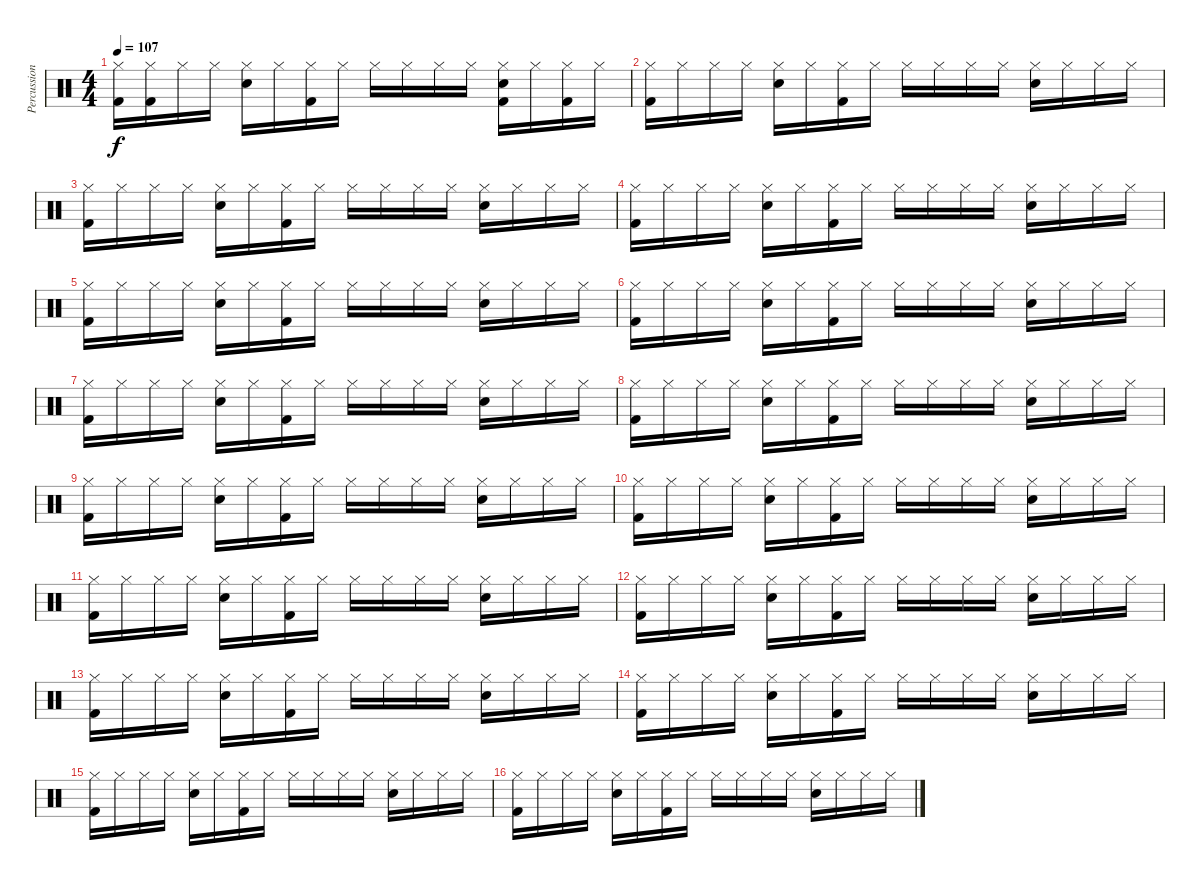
\track ("Percussion" "Percussion") {instrument percussion}
\staff {score}
\articulation defaults
\ts (4 4)
\tempo 107
\clef neutral
\ks c
("Hi-Hat (closed)" "Kick (hit) 2").16{dy f} ("Hi-Hat (closed)" "Kick (hit) 2").16 "Hi-Hat (closed)".16 "Hi-Hat (closed)".16 ("Hi-Hat (closed)" "Snare (hit) 2").16 "Hi-Hat (closed)".16 ("Hi-Hat (closed)" "Kick (hit) 2").16 "Hi-Hat (closed)".16 "Hi-Hat (closed)".16 "Hi-Hat (closed)".16 "Hi-Hat (closed)".16 "Hi-Hat (closed)".16 ("Hi-Hat (closed)" "Snare (hit) 2" "Kick (hit) 2").16 "Hi-Hat (closed)".16 ("Hi-Hat (closed)" "Kick (hit) 2").16 "Hi-Hat (closed)".16 |
("Hi-Hat (closed)" "Kick (hit) 2").16 "Hi-Hat (closed)".16 "Hi-Hat (closed)".16 "Hi-Hat (closed)".16 ("Hi-Hat (closed)" "Snare (hit) 2").16 "Hi-Hat (closed)".16 ("Hi-Hat (closed)" "Kick (hit) 2").16 "Hi-Hat (closed)".16 "Hi-Hat (closed)".16 "Hi-Hat (closed)".16 "Hi-Hat (closed)".16 "Hi-Hat (closed)".16 ("Hi-Hat (closed)" "Snare (hit) 2").16 "Hi-Hat (closed)".16 "Hi-Hat (closed)".16 "Hi-Hat (closed)".16 |
("Hi-Hat (closed)" "Kick (hit) 2").16 "Hi-Hat (closed)".16 "Hi-Hat (closed)".16 "Hi-Hat (closed)".16 ("Hi-Hat (closed)" "Snare (hit) 2").16 "Hi-Hat (closed)".16 ("Hi-Hat (closed)" "Kick (hit) 2").16 "Hi-Hat (closed)".16 "Hi-Hat (closed)".16 "Hi-Hat (closed)".16 "Hi-Hat (closed)".16 "Hi-Hat (closed)".16 ("Hi-Hat (closed)" "Snare (hit) 2").16 "Hi-Hat (closed)".16 "Hi-Hat (closed)".16 "Hi-Hat (closed)".16 |
("Hi-Hat (closed)" "Kick (hit) 2").16 "Hi-Hat (closed)".16 "Hi-Hat (closed)".16 "Hi-Hat (closed)".16 ("Hi-Hat (closed)" "Snare (hit) 2").16 "Hi-Hat (closed)".16 ("Hi-Hat (closed)" "Kick (hit) 2").16 "Hi-Hat (closed)".16 "Hi-Hat (closed)".16 "Hi-Hat (closed)".16 "Hi-Hat (closed)".16 "Hi-Hat (closed)".16 ("Hi-Hat (closed)" "Snare (hit) 2").16 "Hi-Hat (closed)".16 "Hi-Hat (closed)".16 "Hi-Hat (closed)".16 |
("Hi-Hat (closed)" "Kick (hit) 2").16 "Hi-Hat (closed)".16 "Hi-Hat (closed)".16 "Hi-Hat (closed)".16 ("Hi-Hat (closed)" "Snare (hit) 2").16 "Hi-Hat (closed)".16 ("Hi-Hat (closed)" "Kick (hit) 2").16 "Hi-Hat (closed)".16 "Hi-Hat (closed)".16 "Hi-Hat (closed)".16 "Hi-Hat (closed)".16 "Hi-Hat (closed)".16 ("Hi-Hat (closed)" "Snare (hit) 2").16 "Hi-Hat (closed)".16 "Hi-Hat (closed)".16 "Hi-Hat (closed)".16 |
("Hi-Hat (closed)" "Kick (hit) 2").16 "Hi-Hat (closed)".16 "Hi-Hat (closed)".16 "Hi-Hat (closed)".16 ("Hi-Hat (closed)" "Snare (hit) 2").16 "Hi-Hat (closed)".16 ("Hi-Hat (closed)" "Kick (hit) 2").16 "Hi-Hat (closed)".16 "Hi-Hat (closed)".16 "Hi-Hat (closed)".16 "Hi-Hat (closed)".16 "Hi-Hat (closed)".16 ("Hi-Hat (closed)" "Snare (hit) 2").16 "Hi-Hat (closed)".16 "Hi-Hat (closed)".16 "Hi-Hat (closed)".16 |
("Hi-Hat (closed)" "Kick (hit) 2").16 "Hi-Hat (closed)".16 "Hi-Hat (closed)".16 "Hi-Hat (closed)".16 ("Hi-Hat (closed)" "Snare (hit) 2").16 "Hi-Hat (closed)".16 ("Hi-Hat (closed)" "Kick (hit) 2").16 "Hi-Hat (closed)".16 "Hi-Hat (closed)".16 "Hi-Hat (closed)".16 "Hi-Hat (closed)".16 "Hi-Hat (closed)".16 ("Hi-Hat (closed)" "Snare (hit) 2").16 "Hi-Hat (closed)".16 "Hi-Hat (closed)".16 "Hi-Hat (closed)".16 |
("Hi-Hat (closed)" "Kick (hit) 2").16 "Hi-Hat (closed)".16 "Hi-Hat (closed)".16 "Hi-Hat (closed)".16 ("Hi-Hat (closed)" "Snare (hit) 2").16 "Hi-Hat (closed)".16 ("Hi-Hat (closed)" "Kick (hit) 2").16 "Hi-Hat (closed)".16 "Hi-Hat (closed)".16 "Hi-Hat (closed)".16 "Hi-Hat (closed)".16 "Hi-Hat (closed)".16 ("Hi-Hat (closed)" "Snare (hit) 2").16 "Hi-Hat (closed)".16 "Hi-Hat (closed)".16 "Hi-Hat (closed)".16 |
("Hi-Hat (closed)" "Kick (hit) 2").16 "Hi-Hat (closed)".16 "Hi-Hat (closed)".16 "Hi-Hat (closed)".16 ("Hi-Hat (closed)" "Snare (hit) 2").16 "Hi-Hat (closed)".16 ("Hi-Hat (closed)" "Kick (hit) 2").16 "Hi-Hat (closed)".16 "Hi-Hat (closed)".16 "Hi-Hat (closed)".16 "Hi-Hat (closed)".16 "Hi-Hat (closed)".16 ("Hi-Hat (closed)" "Snare (hit) 2").16 "Hi-Hat (closed)".16 "Hi-Hat (closed)".16 "Hi-Hat (closed)".16 |
("Hi-Hat (closed)" "Kick (hit) 2").16 "Hi-Hat (closed)".16 "Hi-Hat (closed)".16 "Hi-Hat (closed)".16 ("Hi-Hat (closed)" "Snare (hit) 2").16 "Hi-Hat (closed)".16 ("Hi-Hat (closed)" "Kick (hit) 2").16 "Hi-Hat (closed)".16 "Hi-Hat (closed)".16 "Hi-Hat (closed)".16 "Hi-Hat (closed)".16 "Hi-Hat (closed)".16 ("Hi-Hat (closed)" "Snare (hit) 2").16 "Hi-Hat (closed)".16 "Hi-Hat (closed)".16 "Hi-Hat (closed)".16 |
("Hi-Hat (closed)" "Kick (hit) 2").16 "Hi-Hat (closed)".16 "Hi-Hat (closed)".16 "Hi-Hat (closed)".16 ("Hi-Hat (closed)" "Snare (hit) 2").16 "Hi-Hat (closed)".16 ("Hi-Hat (closed)" "Kick (hit) 2").16 "Hi-Hat (closed)".16 "Hi-Hat (closed)".16 "Hi-Hat (closed)".16 "Hi-Hat (closed)".16 "Hi-Hat (closed)".16 ("Hi-Hat (closed)" "Snare (hit) 2").16 "Hi-Hat (closed)".16 "Hi-Hat (closed)".16 "Hi-Hat (closed)".16 |
("Hi-Hat (closed)" "Kick (hit) 2").16 "Hi-Hat (closed)".16 "Hi-Hat (closed)".16 "Hi-Hat (closed)".16 ("Hi-Hat (closed)" "Snare (hit) 2").16 "Hi-Hat (closed)".16 ("Hi-Hat (closed)" "Kick (hit) 2").16 "Hi-Hat (closed)".16 "Hi-Hat (closed)".16 "Hi-Hat (closed)".16 "Hi-Hat (closed)".16 "Hi-Hat (closed)".16 ("Hi-Hat (closed)" "Snare (hit) 2").16 "Hi-Hat (closed)".16 "Hi-Hat (closed)".16 "Hi-Hat (closed)".16 |
("Hi-Hat (closed)" "Kick (hit) 2").16 "Hi-Hat (closed)".16 "Hi-Hat (closed)".16 "Hi-Hat (closed)".16 ("Hi-Hat (closed)" "Snare (hit) 2").16 "Hi-Hat (closed)".16 ("Hi-Hat (closed)" "Kick (hit) 2").16 "Hi-Hat (closed)".16 "Hi-Hat (closed)".16 "Hi-Hat (closed)".16 "Hi-Hat (closed)".16 "Hi-Hat (closed)".16 ("Hi-Hat (closed)" "Snare (hit) 2").16 "Hi-Hat (closed)".16 "Hi-Hat (closed)".16 "Hi-Hat (closed)".16 |
("Hi-Hat (closed)" "Kick (hit) 2").16 "Hi-Hat (closed)".16 "Hi-Hat (closed)".16 "Hi-Hat (closed)".16 ("Hi-Hat (closed)" "Snare (hit) 2").16 "Hi-Hat (closed)".16 ("Hi-Hat (closed)" "Kick (hit) 2").16 "Hi-Hat (closed)".16 "Hi-Hat (closed)".16 "Hi-Hat (closed)".16 "Hi-Hat (closed)".16 "Hi-Hat (closed)".16 ("Hi-Hat (closed)" "Snare (hit) 2").16 "Hi-Hat (closed)".16 "Hi-Hat (closed)".16 "Hi-Hat (closed)".16 |
("Hi-Hat (closed)" "Kick (hit) 2").16 "Hi-Hat (closed)".16 "Hi-Hat (closed)".16 "Hi-Hat (closed)".16 ("Hi-Hat (closed)" "Snare (hit) 2").16 "Hi-Hat (closed)".16 ("Hi-Hat (closed)" "Kick (hit) 2").16 "Hi-Hat (closed)".16 "Hi-Hat (closed)".16 "Hi-Hat (closed)".16 "Hi-Hat (closed)".16 "Hi-Hat (closed)".16 ("Hi-Hat (closed)" "Snare (hit) 2").16 "Hi-Hat (closed)".16 "Hi-Hat (closed)".16 "Hi-Hat (closed)".16 |
("Hi-Hat (closed)" "Kick (hit) 2").16 "Hi-Hat (closed)".16 "Hi-Hat (closed)".16 "Hi-Hat (closed)".16 ("Hi-Hat (closed)" "Snare (hit) 2").16 "Hi-Hat (closed)".16 ("Hi-Hat (closed)" "Kick (hit) 2").16 "Hi-Hat (closed)".16 "Hi-Hat (closed)".16 "Hi-Hat (closed)".16 "Hi-Hat (closed)".16 "Hi-Hat (closed)".16 ("Hi-Hat (closed)" "Snare (hit) 2").16 "Hi-Hat (closed)".16 "Hi-Hat (closed)".16 "Hi-Hat (closed)".16
